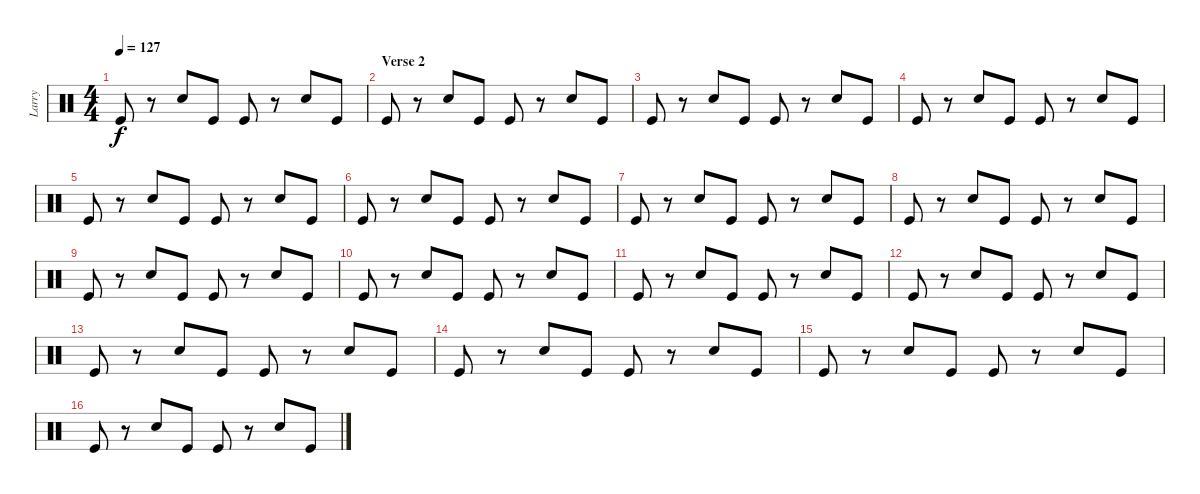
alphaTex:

\track ("Larry" "Larry") {instrument percussion}
\staff {score}
\articulation defaults
\ts (4 4)
\tempo 127
\clef neutral
\ks c "Kick (hit)".8{dy f}
r.8 "Snare (hit) 2".8 "Kick (hit)".8 "Kick (hit)".8 r.8 "Snare (hit) 2".8 "Kick (hit)".8 |
\section ("" "Verse 2")
"Kick (hit)".8 r.8 "Snare (hit) 2".8 "Kick (hit)".8 "Kick (hit)".8 r.8 "Snare (hit) 2".8 "Kick (hit)".8 |
"Kick (hit)".8 r.8 "Snare (hit) 2".8 "Kick (hit)".8 "Kick (hit)".8 r.8 "Snare (hit) 2".8 "Kick (hit)".8 |
"Kick (hit)".8 r.8 "Snare (hit) 2".8 "Kick (hit)".8 "Kick (hit)".8 r.8 "Snare (hit) 2".8 "Kick (hit)".8 |
"Kick (hit)".8 r.8 "Snare (hit) 2".8 "Kick (hit)".8 "Kick (hit)".8 r.8 "Snare (hit) 2".8 "Kick (hit)".8 |
"Kick (hit)".8 r.8 "Snare (hit) 2".8 "Kick (hit)".8 "Kick (hit)".8 r.8 "Snare (hit) 2".8 "Kick (hit)".8 |
"Kick (hit)".8 r.8 "Snare (hit) 2".8 "Kick (hit)".8 "Kick (hit)".8 r.8 "Snare (hit) 2".8 "Kick (hit)".8 |
"Kick (hit)".8 r.8 "Snare (hit) 2".8 "Kick (hit)".8 "Kick (hit)".8 r.8 "Snare (hit) 2".8 "Kick (hit)".8 |
"Kick (hit)".8 r.8 "Snare (hit) 2".8 "Kick (hit)".8 "Kick (hit)".8 r.8 "Snare (hit) 2".8 "Kick (hit)".8 |
"Kick (hit)".8 r.8 "Snare (hit) 2".8 "Kick (hit)".8 "Kick (hit)".8 r.8 "Snare (hit) 2".8 "Kick (hit)".8 |
"Kick (hit)".8 r.8 "Snare (hit) 2".8 "Kick (hit)".8 "Kick (hit)".8 r.8 "Snare (hit) 2".8 "Kick (hit)".8 |
"Kick (hit)".8 r.8 "Snare (hit) 2".8 "Kick (hit)".8 "Kick (hit)".8 r.8 "Snare (hit) 2".8 "Kick (hit)".8 |
"Kick (hit)".8 r.8 "Snare (hit) 2".8 "Kick (hit)".8 "Kick (hit)".8 r.8 "Snare (hit) 2".8 "Kick (hit)".8 |
"Kick (hit)".8 r.8 "Snare (hit) 2".8 "Kick (hit)".8 "Kick (hit)".8 r.8 "Snare (hit) 2".8 "Kick (hit)".8 |
"Kick (hit)".8 r.8 "Snare (hit) 2".8 "Kick (hit)".8 "Kick (hit)".8 r.8 "Snare (hit) 2".8 "Kick (hit)".8 |
"Kick (hit)".8 r.8 "Snare (hit) 2".8 "Kick (hit)".8 "Kick (hit)".8 r.8 "Snare (hit) 2".8 "Kick (hit)".8
